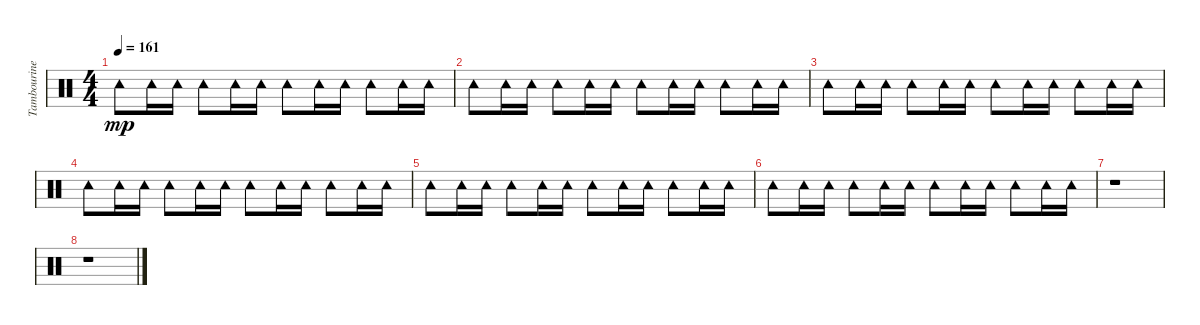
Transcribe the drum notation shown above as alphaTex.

\track ("Tambourine" "Tambourine") {instrument percussion}
\staff {score}
\articulation defaults
\ts (4 4)
\tempo 161
\clef neutral
\ks c "Tambourine (hit)".8{dy mp} "Tambourine (hit)".16 "Tambourine (hit)".16 "Tambourine (hit)".8 "Tambourine (hit)".16 "Tambourine (hit)".16 "Tambourine (hit)".8 "Tambourine (hit)".16 "Tambourine (hit)".16 "Tambourine (hit)".8 "Tambourine (hit)".16 "Tambourine (hit)".16
|
"Tambourine (hit)".8 "Tambourine (hit)".16 "Tambourine (hit)".16 "Tambourine (hit)".8 "Tambourine (hit)".16 "Tambourine (hit)".16 "Tambourine (hit)".8 "Tambourine (hit)".16 "Tambourine (hit)".16 "Tambourine (hit)".8 "Tambourine (hit)".16 "Tambourine (hit)".16 |
"Tambourine (hit)".8 "Tambourine (hit)".16 "Tambourine (hit)".16 "Tambourine (hit)".8 "Tambourine (hit)".16 "Tambourine (hit)".16 "Tambourine (hit)".8 "Tambourine (hit)".16 "Tambourine (hit)".16 "Tambourine (hit)".8 "Tambourine (hit)".16 "Tambourine (hit)".16 |
"Tambourine (hit)".8 "Tambourine (hit)".16 "Tambourine (hit)".16 "Tambourine (hit)".8 "Tambourine (hit)".16 "Tambourine (hit)".16 "Tambourine (hit)".8 "Tambourine (hit)".16 "Tambourine (hit)".16 "Tambourine (hit)".8 "Tambourine (hit)".16 "Tambourine (hit)".16 |
"Tambourine (hit)".8 "Tambourine (hit)".16 "Tambourine (hit)".16 "Tambourine (hit)".8 "Tambourine (hit)".16 "Tambourine (hit)".16 "Tambourine (hit)".8 "Tambourine (hit)".16 "Tambourine (hit)".16 "Tambourine (hit)".8 "Tambourine (hit)".16 "Tambourine (hit)".16 |
"Tambourine (hit)".8 "Tambourine (hit)".16 "Tambourine (hit)".16 "Tambourine (hit)".8 "Tambourine (hit)".16 "Tambourine (hit)".16 "Tambourine (hit)".8 "Tambourine (hit)".16 "Tambourine (hit)".16 "Tambourine (hit)".8 "Tambourine (hit)".16 "Tambourine (hit)".16 |
r.1 |
r.1
